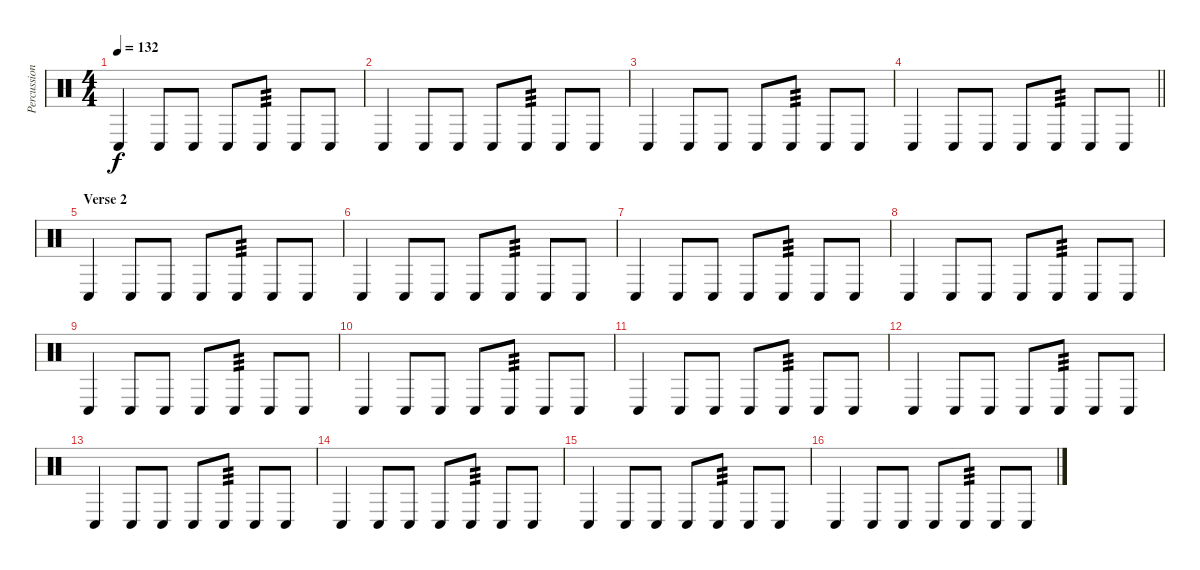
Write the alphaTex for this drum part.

\track ("Percussion" "Percussion") {instrument percussion}
\staff {score}
\articulation defaults
\ts (4 4)
\tempo 132
\clef neutral
\ks c "Conga low (hit)".4{dy f} "Conga low (hit)".8 "Conga low (hit)".8 "Conga low (hit)".8 "Conga low (hit)".8{tp 3} "Conga low (hit)".8 "Conga low (hit)".8
|
"Conga low (hit)".4 "Conga low (hit)".8 "Conga low (hit)".8 "Conga low (hit)".8 "Conga low (hit)".8{tp 3} "Conga low (hit)".8 "Conga low (hit)".8 |
"Conga low (hit)".4 "Conga low (hit)".8 "Conga low (hit)".8 "Conga low (hit)".8 "Conga low (hit)".8{tp 3} "Conga low (hit)".8 "Conga low (hit)".8 |
\barLineRight lightlight "Conga low (hit)".4 "Conga low (hit)".8 "Conga low (hit)".8 "Conga low (hit)".8 "Conga low (hit)".8{tp 3} "Conga low (hit)".8 "Conga low (hit)".8
|
\section ("" "Verse 2")
"Conga low (hit)".4 "Conga low (hit)".8 "Conga low (hit)".8 "Conga low (hit)".8 "Conga low (hit)".8{tp 3} "Conga low (hit)".8 "Conga low (hit)".8 |
"Conga low (hit)".4 "Conga low (hit)".8 "Conga low (hit)".8 "Conga low (hit)".8 "Conga low (hit)".8{tp 3} "Conga low (hit)".8 "Conga low (hit)".8 |
"Conga low (hit)".4 "Conga low (hit)".8 "Conga low (hit)".8 "Conga low (hit)".8 "Conga low (hit)".8{tp 3} "Conga low (hit)".8 "Conga low (hit)".8 |
"Conga low (hit)".4 "Conga low (hit)".8 "Conga low (hit)".8 "Conga low (hit)".8 "Conga low (hit)".8{tp 3} "Conga low (hit)".8 "Conga low (hit)".8 |
"Conga low (hit)".4 "Conga low (hit)".8 "Conga low (hit)".8 "Conga low (hit)".8 "Conga low (hit)".8{tp 3} "Conga low (hit)".8 "Conga low (hit)".8 |
"Conga low (hit)".4 "Conga low (hit)".8 "Conga low (hit)".8 "Conga low (hit)".8 "Conga low (hit)".8{tp 3} "Conga low (hit)".8 "Conga low (hit)".8 |
"Conga low (hit)".4 "Conga low (hit)".8 "Conga low (hit)".8 "Conga low (hit)".8 "Conga low (hit)".8{tp 3} "Conga low (hit)".8 "Conga low (hit)".8 |
"Conga low (hit)".4 "Conga low (hit)".8 "Conga low (hit)".8 "Conga low (hit)".8 "Conga low (hit)".8{tp 3} "Conga low (hit)".8 "Conga low (hit)".8 |
"Conga low (hit)".4 "Conga low (hit)".8 "Conga low (hit)".8 "Conga low (hit)".8 "Conga low (hit)".8{tp 3} "Conga low (hit)".8 "Conga low (hit)".8 |
"Conga low (hit)".4 "Conga low (hit)".8 "Conga low (hit)".8 "Conga low (hit)".8 "Conga low (hit)".8{tp 3} "Conga low (hit)".8 "Conga low (hit)".8 |
"Conga low (hit)".4 "Conga low (hit)".8 "Conga low (hit)".8 "Conga low (hit)".8 "Conga low (hit)".8{tp 3} "Conga low (hit)".8 "Conga low (hit)".8 |
"Conga low (hit)".4 "Conga low (hit)".8 "Conga low (hit)".8 "Conga low (hit)".8 "Conga low (hit)".8{tp 3} "Conga low (hit)".8 "Conga low (hit)".8
